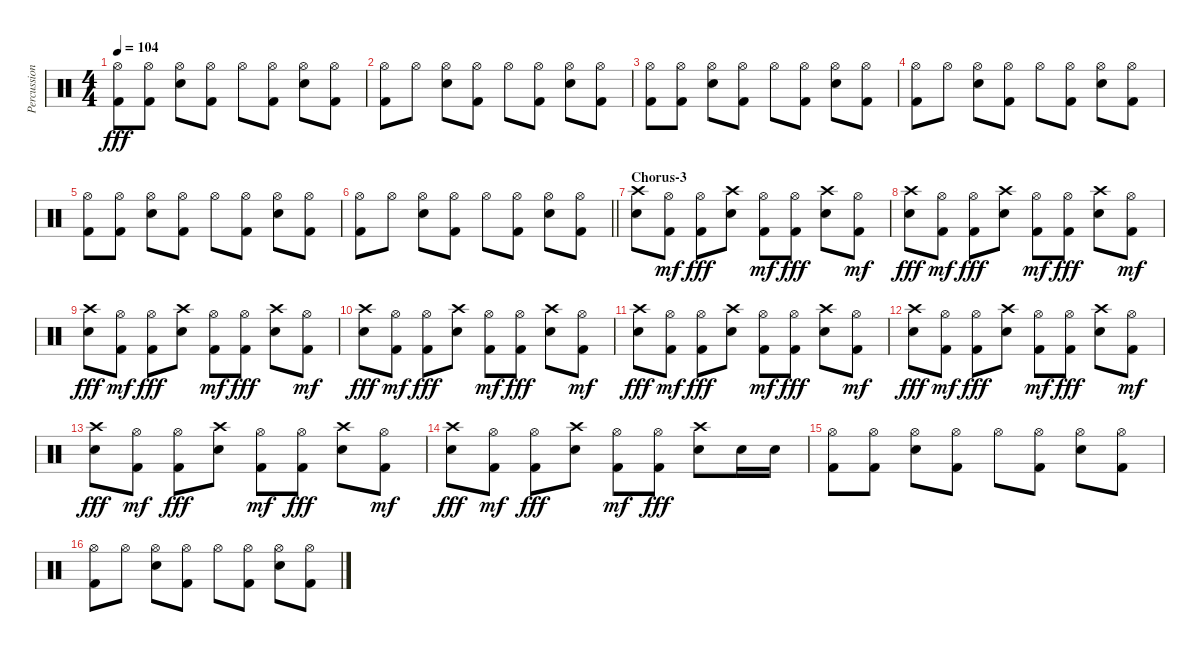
\track ("Percussion" "Percussion") {instrument percussion}
\staff {score}
\articulation defaults
\ts (4 4)
\tempo 104
\clef neutral
\ks c
("Hi-Hat (open)" "Kick (hit) 2").8{dy fff} ("Hi-Hat (open)" "Kick (hit) 2").8 ("Hi-Hat (open)" "Electric Snare (hit)").8 ("Hi-Hat (open)" "Kick (hit) 2").8 "Hi-Hat (open)".8 ("Hi-Hat (open)" "Kick (hit) 2").8 ("Hi-Hat (open)" "Electric Snare (hit)").8 ("Hi-Hat (open)" "Kick (hit) 2").8 |
("Hi-Hat (open)" "Kick (hit) 2").8 "Hi-Hat (open)".8 ("Hi-Hat (open)" "Electric Snare (hit)").8 ("Hi-Hat (open)" "Kick (hit) 2").8 "Hi-Hat (open)".8 ("Hi-Hat (open)" "Kick (hit) 2").8 ("Hi-Hat (open)" "Electric Snare (hit)").8 ("Hi-Hat (open)" "Kick (hit) 2").8 |
("Hi-Hat (open)" "Kick (hit) 2").8 ("Hi-Hat (open)" "Kick (hit) 2").8 ("Hi-Hat (open)" "Electric Snare (hit)").8 ("Hi-Hat (open)" "Kick (hit) 2").8 "Hi-Hat (open)".8 ("Hi-Hat (open)" "Kick (hit) 2").8 ("Hi-Hat (open)" "Electric Snare (hit)").8 ("Hi-Hat (open)" "Kick (hit) 2").8 |
("Hi-Hat (open)" "Kick (hit) 2").8 "Hi-Hat (open)".8 ("Hi-Hat (open)" "Electric Snare (hit)").8 ("Hi-Hat (open)" "Kick (hit) 2").8 "Hi-Hat (open)".8 ("Hi-Hat (open)" "Kick (hit) 2").8 ("Hi-Hat (open)" "Electric Snare (hit)").8 ("Hi-Hat (open)" "Kick (hit) 2").8 |
("Hi-Hat (open)" "Kick (hit) 2").8 ("Hi-Hat (open)" "Kick (hit) 2").8 ("Hi-Hat (open)" "Electric Snare (hit)").8 ("Hi-Hat (open)" "Kick (hit) 2").8 "Hi-Hat (open)".8 ("Hi-Hat (open)" "Kick (hit) 2").8 ("Hi-Hat (open)" "Electric Snare (hit)").8 ("Hi-Hat (open)" "Kick (hit) 2").8 |
\barLineRight lightlight
("Hi-Hat (open)" "Kick (hit) 2").8 "Hi-Hat (open)".8 ("Hi-Hat (open)" "Electric Snare (hit)").8 ("Hi-Hat (open)" "Kick (hit) 2").8 "Hi-Hat (open)".8 ("Hi-Hat (open)" "Kick (hit) 2").8 ("Hi-Hat (open)" "Electric Snare (hit)").8 ("Hi-Hat (open)" "Kick (hit) 2").8 |
\section ("" "Chorus-3")
("Crash high (hit)" "Electric Snare (hit)").8 ("Hi-Hat (open)" "Kick (hit) 2").8{dy mf} ("Hi-Hat (open)" "Kick (hit) 2").8{dy fff} ("Crash high (hit)" "Electric Snare (hit)").8 ("Hi-Hat (open)" "Kick (hit) 2").8{dy mf} ("Hi-Hat (open)" "Kick (hit) 2").8{dy fff} ("Crash high (hit)" "Electric Snare (hit)").8 ("Hi-Hat (open)" "Kick (hit) 2").8{dy mf} |
("Crash high (hit)" "Electric Snare (hit)").8{dy fff} ("Hi-Hat (open)" "Kick (hit) 2").8{dy mf} ("Hi-Hat (open)" "Kick (hit) 2").8{dy fff} ("Crash high (hit)" "Electric Snare (hit)").8 ("Hi-Hat (open)" "Kick (hit) 2").8{dy mf} ("Hi-Hat (open)" "Kick (hit) 2").8{dy fff} ("Crash high (hit)" "Electric Snare (hit)").8 ("Hi-Hat (open)" "Kick (hit) 2").8{dy mf} |
("Crash high (hit)" "Electric Snare (hit)").8{dy fff} ("Hi-Hat (open)" "Kick (hit) 2").8{dy mf} ("Hi-Hat (open)" "Kick (hit) 2").8{dy fff} ("Crash high (hit)" "Electric Snare (hit)").8 ("Hi-Hat (open)" "Kick (hit) 2").8{dy mf} ("Hi-Hat (open)" "Kick (hit) 2").8{dy fff} ("Crash high (hit)" "Electric Snare (hit)").8 ("Hi-Hat (open)" "Kick (hit) 2").8{dy mf} |
("Crash high (hit)" "Electric Snare (hit)").8{dy fff} ("Hi-Hat (open)" "Kick (hit) 2").8{dy mf} ("Hi-Hat (open)" "Kick (hit) 2").8{dy fff} ("Crash high (hit)" "Electric Snare (hit)").8 ("Hi-Hat (open)" "Kick (hit) 2").8{dy mf} ("Hi-Hat (open)" "Kick (hit) 2").8{dy fff} ("Crash high (hit)" "Electric Snare (hit)").8 ("Hi-Hat (open)" "Kick (hit) 2").8{dy mf} |
("Crash high (hit)" "Electric Snare (hit)").8{dy fff} ("Hi-Hat (open)" "Kick (hit) 2").8{dy mf} ("Hi-Hat (open)" "Kick (hit) 2").8{dy fff} ("Crash high (hit)" "Electric Snare (hit)").8 ("Hi-Hat (open)" "Kick (hit) 2").8{dy mf} ("Hi-Hat (open)" "Kick (hit) 2").8{dy fff} ("Crash high (hit)" "Electric Snare (hit)").8 ("Hi-Hat (open)" "Kick (hit) 2").8{dy mf} |
("Crash high (hit)" "Electric Snare (hit)").8{dy fff} ("Hi-Hat (open)" "Kick (hit) 2").8{dy mf} ("Hi-Hat (open)" "Kick (hit) 2").8{dy fff} ("Crash high (hit)" "Electric Snare (hit)").8 ("Hi-Hat (open)" "Kick (hit) 2").8{dy mf} ("Hi-Hat (open)" "Kick (hit) 2").8{dy fff} ("Crash high (hit)" "Electric Snare (hit)").8 ("Hi-Hat (open)" "Kick (hit) 2").8{dy mf} |
("Crash high (hit)" "Electric Snare (hit)").8{dy fff} ("Hi-Hat (open)" "Kick (hit) 2").8{dy mf} ("Hi-Hat (open)" "Kick (hit) 2").8{dy fff} ("Crash high (hit)" "Electric Snare (hit)").8 ("Hi-Hat (open)" "Kick (hit) 2").8{dy mf} ("Hi-Hat (open)" "Kick (hit) 2").8{dy fff} ("Crash high (hit)" "Electric Snare (hit)").8 ("Hi-Hat (open)" "Kick (hit) 2").8{dy mf} |
("Crash high (hit)" "Electric Snare (hit)").8{dy fff} ("Hi-Hat (open)" "Kick (hit) 2").8{dy mf} ("Hi-Hat (open)" "Kick (hit) 2").8{dy fff} ("Crash high (hit)" "Electric Snare (hit)").8 ("Hi-Hat (open)" "Kick (hit) 2").8{dy mf} ("Hi-Hat (open)" "Kick (hit) 2").8{dy fff} ("Crash high (hit)" "Electric Snare (hit)").8 "Electric Snare (hit)".16 "Electric Snare (hit)".16 |
("Hi-Hat (open)" "Kick (hit) 2").8 ("Hi-Hat (open)" "Kick (hit) 2").8 ("Hi-Hat (open)" "Electric Snare (hit)").8 ("Hi-Hat (open)" "Kick (hit) 2").8 "Hi-Hat (open)".8 ("Hi-Hat (open)" "Kick (hit) 2").8 ("Hi-Hat (open)" "Electric Snare (hit)").8 ("Hi-Hat (open)" "Kick (hit) 2").8 |
("Hi-Hat (open)" "Kick (hit) 2").8 "Hi-Hat (open)".8 ("Hi-Hat (open)" "Electric Snare (hit)").8 ("Hi-Hat (open)" "Kick (hit) 2").8 "Hi-Hat (open)".8 ("Hi-Hat (open)" "Kick (hit) 2").8 ("Hi-Hat (open)" "Electric Snare (hit)").8 ("Hi-Hat (open)" "Kick (hit) 2").8
